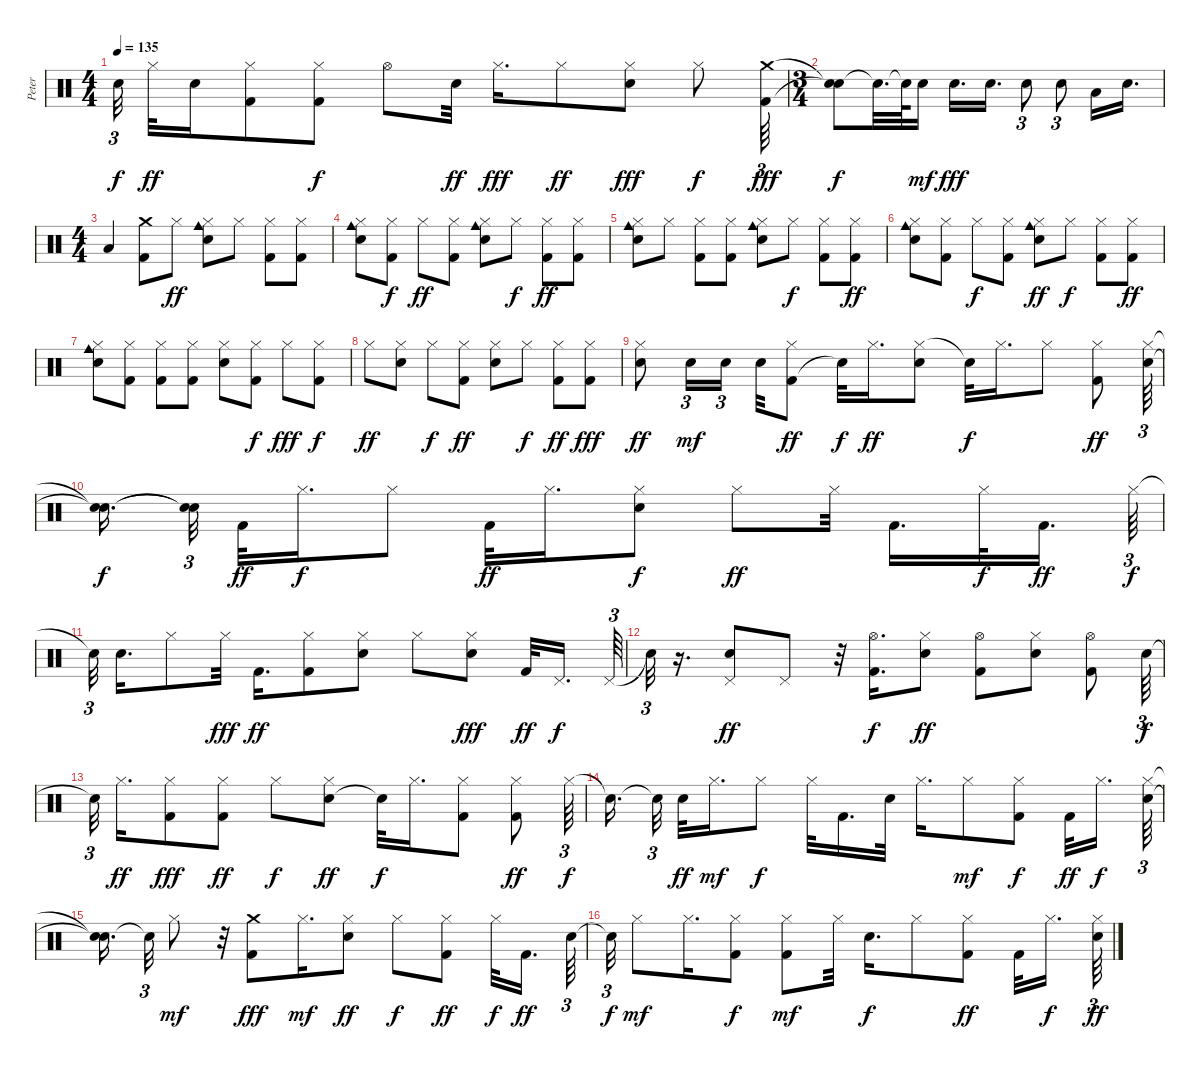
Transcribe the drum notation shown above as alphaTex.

\track ("Peter" "Peter") {instrument percussion}
\staff {score}
\articulation defaults
\ts (4 4)
\tempo 135
\clef neutral
\ks c "Snare (hit)"{t}.32{tu (3 2) dy f} "Hi-Hat (closed)".32{dy ff} "Electric Snare (hit)".16
("Kick (hit) 2" "Hi-Hat (closed)").8 ("Hi-Hat (closed)" "Kick (hit) 2").8{dy f} "Hi-Hat (open)".8 "Electric Snare (hit)".32{dy ff} "Hi-Hat (closed)".16{d dy fff} "Hi-Hat (closed)".8{dy ff} ("Hi-Hat (closed)" "Electric Snare (hit)").8{dy fff} "Hi-Hat (closed)".8{dy f} ("Kick (hit) 2" "Crash medium (hit)").64{tu (3 2) dy fff} |
\ts (3 4)
("Snare (hit)"{t} "Snare (hit)"{t}).8{dy f} "Snare (hit)"{t}.32{d} "Snare (hit)"{t}.64 "Electric Snare (hit)".16{dy mf} "Electric Snare (hit)".16{d dy fff} "Electric Snare (hit)".16{d} "Electric Snare (hit)".8{tu (3 2)} "Electric Snare (hit)".8{tu (3 2)} "Low Tom (hit)".16 "Electric Snare (hit)".16{d} |
\ts (4 4)
"Low Tom (hit)".4 ("Kick (hit) 2" "Crash medium (hit)").8 "Hi-Hat (closed)".8{dy ff} ("Cowbell medium (hit)" "Electric Snare (hit)" "Hi-Hat (closed)").8 "Hi-Hat (closed)".8 ("Hi-Hat (closed)" "Kick (hit) 2").8 ("Hi-Hat (closed)" "Kick (hit) 2").8 |
("Cowbell medium (hit)" "Hi-Hat (closed)" "Electric Snare (hit)").8 ("Hi-Hat (closed)" "Kick (hit) 2").8{dy f} "Hi-Hat (closed)".8{dy ff} ("Hi-Hat (closed)" "Kick (hit) 2").8 ("Hi-Hat (closed)" "Cowbell medium (hit)" "Electric Snare (hit)").8 "Hi-Hat (closed)".8{dy f} ("Kick (hit) 2" "Hi-Hat (closed)").8{dy ff} ("Hi-Hat (closed)" "Kick (hit) 2").8 |
("Cowbell medium (hit)" "Electric Snare (hit)" "Hi-Hat (closed)").8 "Hi-Hat (closed)".8 ("Hi-Hat (closed)" "Kick (hit) 2").8 ("Hi-Hat (closed)" "Kick (hit) 2").8 ("Hi-Hat (closed)" "Cowbell medium (hit)" "Electric Snare (hit)").8 "Hi-Hat (closed)".8{dy f} ("Hi-Hat (closed)" "Kick (hit) 2").8 ("Hi-Hat (closed)" "Kick (hit) 2").8{dy ff} |
("Hi-Hat (closed)" "Cowbell medium (hit)" "Electric Snare (hit)").8 ("Hi-Hat (closed)" "Kick (hit) 2").8 "Hi-Hat (closed)".8{dy f} ("Hi-Hat (closed)" "Kick (hit) 2").8 ("Electric Snare (hit)" "Cowbell medium (hit)" "Hi-Hat (closed)").8{dy ff} "Hi-Hat (closed)".8{dy f} ("Hi-Hat (closed)" "Kick (hit) 2").8 ("Kick (hit) 2" "Hi-Hat (closed)").8{dy ff} |
("Cowbell medium (hit)" "Electric Snare (hit)" "Hi-Hat (closed)").8 ("Kick (hit) 2" "Hi-Hat (closed)").8 ("Kick (hit) 2" "Hi-Hat (closed)").8 ("Hi-Hat (closed)" "Kick (hit) 2").8 ("Hi-Hat (closed)" "Electric Snare (hit)").8 ("Kick (hit) 2" "Hi-Hat (closed)").8{dy f} "Hi-Hat (closed)".8{dy fff} ("Hi-Hat (closed)" "Kick (hit) 2").8{dy f} |
"Hi-Hat (closed)".8{dy ff} ("Hi-Hat (closed)" "Electric Snare (hit)").8 "Hi-Hat (closed)".8{dy f} ("Kick (hit) 2" "Hi-Hat (closed)").8{dy ff} ("Electric Snare (hit)" "Hi-Hat (closed)").8 "Hi-Hat (closed)".8{dy f} ("Kick (hit) 2" "Hi-Hat (closed)").8{dy ff} ("Kick (hit) 2" "Hi-Hat (closed)").8{dy fff} |
("Hi-Hat (closed)" "Electric Snare (hit)").8{dy ff} "Electric Snare (hit)".16{tu (3 2) dy mf} "Electric Snare (hit)".16{tu (3 2)} "Electric Snare (hit)".32 ("Kick (hit) 2" "Hi-Hat (closed)").8{dy ff} "Snare (hit)"{t}.32{dy f} "Hi-Hat (closed)".16{d dy ff} ("Hi-Hat (closed)" "Electric Snare (hit)").8 "Snare (hit)"{t}.32{dy f} "Hi-Hat (closed)".16{d} "Hi-Hat (closed)".8 ("Kick (hit) 2" "Hi-Hat (closed)").8{dy ff} ("Hi-Hat (closed)" "Electric Snare (hit)").64{tu (3 2)} |
("Snare (hit)"{t} "Snare (hit)"{t}).16{d dy f} ("Snare (hit)"{t} "Snare (hit)"{t}).32{tu (3 2)} "Kick (hit) 2".32{dy ff} "Hi-Hat (closed)".16{d dy f} "Hi-Hat (closed)".8 "Kick (hit) 2".32{dy ff} "Hi-Hat (closed)".16{d} ("Electric Snare (hit)" "Hi-Hat (closed)").8{dy f} "Hi-Hat (closed)".8{dy ff} "Hi-Hat (closed)".32 "Kick (hit) 2".16{d} "Hi-Hat (closed)".32{dy f} "Kick (hit) 2".16{d dy ff} "Hi-Hat (closed)".64{tu (3 2) dy f} |
"Snare (hit)"{t}.32{tu (3 2)} "Electric Snare (hit)".16{d} "Hi-Hat (closed)".8 "Hi-Hat (closed)".32{dy fff} "Kick (hit) 2".16{d dy ff} ("Kick (hit) 2" "Hi-Hat (closed)").8 ("Hi-Hat (closed)" "Electric Snare (hit)").8 "Hi-Hat (closed)".8 ("Electric Snare (hit)" "Hi-Hat (closed)").8{dy fff} "Kick (hit) 2".32{dy ff} "Pedal Hi-Hat (hit)".16{d dy f} "Pedal Hi-Hat (hit)".64{tu (3 2)} |
"Snare (hit)"{t}.32{tu (3 2)} r.16{d} ("Pedal Hi-Hat (hit)" "Electric Snare (hit)").8{dy ff} "Pedal Hi-Hat (hit)".8 r.32 ("Hi-Hat (open)" "Kick (hit) 2").16{d dy f} ("Electric Snare (hit)" "Hi-Hat (closed)").8{dy ff} ("Hi-Hat (open)" "Kick (hit) 2").8 ("Hi-Hat (closed)" "Electric Snare (hit)").8 ("Kick (hit) 2" "Hi-Hat (open)").8 "Electric Snare (hit)".64{tu (3 2) dy f} |
"Snare (hit)"{t}.32{tu (3 2)} "Hi-Hat (closed)".16{d dy ff} ("Kick (hit) 2" "Hi-Hat (closed)").8{dy fff} ("Hi-Hat (closed)" "Kick (hit) 2").8{dy ff} "Hi-Hat (closed)".8{dy f} ("Electric Snare (hit)" "Hi-Hat (closed)").8{dy ff} "Snare (hit)"{t}.32{dy f} "Hi-Hat (closed)".16{d} ("Kick (hit) 2" "Hi-Hat (closed)").8 ("Kick (hit) 2" "Hi-Hat (closed)").8{dy ff} "Hi-Hat (closed)".64{tu (3 2) dy f} |
"Snare (hit)"{t}.16{d} "Snare (hit)"{t}.32{tu (3 2)} "Electric Snare (hit)".32{dy ff} "Hi-Hat (closed)".16{d dy mf} "Hi-Hat (closed)".8{dy f} "Hi-Hat (closed)".32 "Kick (hit) 2".16{d} "Electric Snare (hit)".32 "Hi-Hat (closed)".16{d} "Hi-Hat (closed)".8{dy mf} ("Kick (hit) 2" "Hi-Hat (closed)").8{dy f} "Kick (hit) 2".32{dy ff} "Hi-Hat (closed)".16{d dy f} ("Hi-Hat (closed)" "Electric Snare (hit)").64{tu (3 2)} |
("Snare (hit)"{t} "Snare (hit)"{t}).16{d} "Snare (hit)"{t}.32{tu (3 2)} "Hi-Hat (closed)".8{dy mf} r.32 ("Kick (hit) 2" "Crash medium (hit)").8{dy fff} "Hi-Hat (closed)".16{d dy mf} ("Electric Snare (hit)" "Hi-Hat (closed)").8{dy ff} "Hi-Hat (closed)".8{dy f} ("Hi-Hat (closed)" "Kick (hit) 2").8{dy ff} "Hi-Hat (closed)".32{dy f} "Kick (hit) 2".16{d dy ff} "Electric Snare (hit)".64{tu (3 2)} |
"Snare (hit)"{t}.32{tu (3 2) dy f} "Hi-Hat (closed)".8{dy mf} "Hi-Hat (closed)".16{d} ("Kick (hit) 2" "Hi-Hat (closed)").8{dy f} ("Kick (hit) 2" "Hi-Hat (closed)").8{dy mf} "Hi-Hat (closed)".32 "Electric Snare (hit)".16{d dy f} "Hi-Hat (closed)".8 ("Hi-Hat (closed)" "Kick (hit) 2").8{dy ff} "Kick (hit) 2".32 "Hi-Hat (closed)".16{d dy f} ("Hi-Hat (closed)" "Electric Snare (hit)").64{tu (3 2) dy ff}
